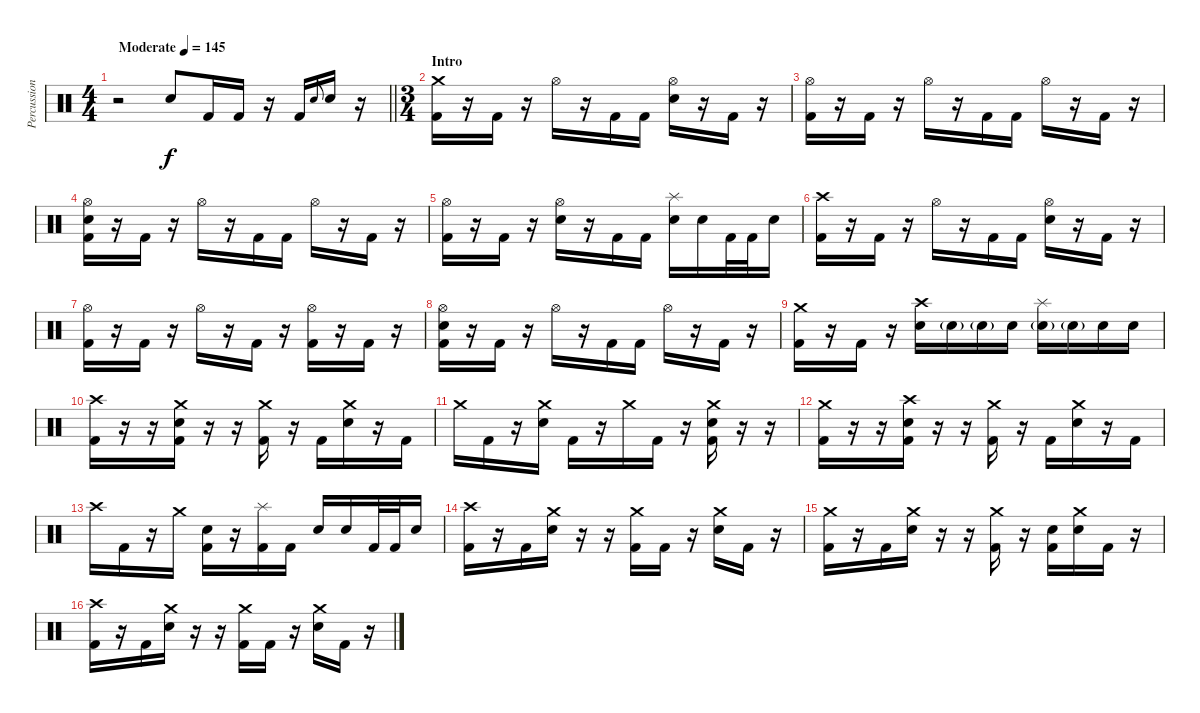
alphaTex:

\track ("Percussion" "Percussion") {instrument percussion}
\staff {score}
\articulation defaults
\ts (4 4)
\tempo (145 "Moderate")
\clef neutral
\barLineRight lightlight
\ks c
r.2{dy f} "Electric Snare (hit)".8 "Kick (hit) 2".16 "Kick (hit) 2".16 r.16 "Kick (hit) 2".16 "Electric Snare (hit)".8{gr onbeat} "Electric Snare (hit)".16 r.16 |
\ts (3 4)
\section ("" "Intro")
("Crash medium (hit)" "Kick (hit) 2").16 r.16 "Kick (hit) 2".16 r.16 "Hi-Hat (open)".16 r.16 "Kick (hit) 2".16 "Kick (hit) 2".16 ("Hi-Hat (open)" "Electric Snare (hit)").16 r.16 "Kick (hit) 2".16 r.16 |
("Hi-Hat (open)" "Kick (hit) 2").16 r.16 "Kick (hit) 2".16 r.16 "Hi-Hat (open)".16 r.16 "Kick (hit) 2".16 "Kick (hit) 2".16 "Hi-Hat (open)".16 r.16 "Kick (hit) 2".16 r.16 |
("Hi-Hat (open)" "Electric Snare (hit)" "Kick (hit) 2").16 r.16 "Kick (hit) 2".16 r.16 "Hi-Hat (open)".16 r.16 "Kick (hit) 2".16 "Kick (hit) 2".16 "Hi-Hat (open)".16 r.16 "Kick (hit) 2".16 r.16 |
("Hi-Hat (open)" "Kick (hit) 2").16 r.16 "Kick (hit) 2".16 r.16 ("Hi-Hat (open)" "Electric Snare (hit)").16 r.16 "Kick (hit) 2".16 "Kick (hit) 2".16 ("Splash (hit)" "Electric Snare (hit)").16 "Electric Snare (hit)".16 "Kick (hit) 2".32 "Kick (hit) 2".32 "Electric Snare (hit)".16 |
("Crash high (hit)" "Kick (hit) 2").16 r.16 "Kick (hit) 2".16 r.16 "Hi-Hat (open)".16 r.16 "Kick (hit) 2".16 "Kick (hit) 2".16 ("Hi-Hat (open)" "Electric Snare (hit)").16 r.16 "Kick (hit) 2".16 r.16 |
("Hi-Hat (open)" "Kick (hit) 2").16 r.16 "Kick (hit) 2".16 r.16 "Hi-Hat (open)".16 r.16 "Kick (hit) 2".16 r.16 ("Hi-Hat (open)" "Kick (hit) 2").16 r.16 "Kick (hit) 2".16 r.16 |
("Hi-Hat (open)" "Electric Snare (hit)" "Kick (hit) 2").16 r.16 "Kick (hit) 2".16 r.16 "Hi-Hat (open)".16 r.16 "Kick (hit) 2".16 "Kick (hit) 2".16 "Hi-Hat (open)".16 r.16 "Kick (hit) 2".16 r.16 |
("Crash medium (hit)" "Kick (hit) 2").16 r.16 "Kick (hit) 2".16 r.16 ("Crash high (hit)" "Electric Snare (hit)").16 "Electric Snare (hit)"{g}.16 "Electric Snare (hit)"{g}.16 "Electric Snare (hit)".16 ("Splash (hit)" "Electric Snare (hit)"{g}).16 "Electric Snare (hit)"{g}.16 "Electric Snare (hit)".16 "Electric Snare (hit)".16 |
("Crash high (hit)" "Kick (hit) 2").16 r.16 r.16 ("Crash medium (hit)" "Electric Snare (hit)" "Kick (hit) 2").16 r.16 r.16 ("Crash medium (hit)" "Kick (hit) 2").16 r.16 "Kick (hit) 2".16 ("Crash medium (hit)" "Electric Snare (hit)").16 r.16 "Kick (hit) 2".16 |
"Crash medium (hit)".16 "Kick (hit) 2".16 r.16 ("Crash medium (hit)" "Electric Snare (hit)").16 "Kick (hit) 2".16 r.16 "Crash medium (hit)".16 "Kick (hit) 2".16 r.16 ("Crash medium (hit)" "Electric Snare (hit)" "Kick (hit) 2").16 r.16 r.16 |
("Crash medium (hit)" "Kick (hit) 2").16 r.16 r.16 ("Crash high (hit)" "Electric Snare (hit)" "Kick (hit) 2").16 r.16 r.16 ("Crash medium (hit)" "Kick (hit) 2").16 r.16 "Kick (hit) 2".16 ("Crash medium (hit)" "Electric Snare (hit)").16 r.16 "Kick (hit) 2".16 |
"Crash high (hit)".16 "Kick (hit) 2".16 r.16 "Crash medium (hit)".16 ("Electric Snare (hit)" "Kick (hit) 2").16 r.16 ("Splash (hit)" "Kick (hit) 2").16 "Kick (hit) 2".16 "Electric Snare (hit)".16 "Electric Snare (hit)".16 "Kick (hit) 2".32 "Kick (hit) 2".32 "Electric Snare (hit)".16 |
("Crash high (hit)" "Kick (hit) 2").16 r.16 "Kick (hit) 2".16 ("Crash medium (hit)" "Electric Snare (hit)").16 r.16 r.16 ("Crash medium (hit)" "Kick (hit) 2").16 "Kick (hit) 2".16 r.16 ("Crash medium (hit)" "Electric Snare (hit)").16 "Kick (hit) 2".16 r.16 |
("Crash medium (hit)" "Kick (hit) 2").16 r.16 "Kick (hit) 2".16 ("Crash medium (hit)" "Electric Snare (hit)").16 r.16 r.16 ("Crash medium (hit)" "Kick (hit) 2").16 r.16 ("Electric Snare (hit)" "Kick (hit) 2").16 ("Crash medium (hit)" "Electric Snare (hit)").16 "Kick (hit) 2".16 r.16 |
("Crash high (hit)" "Kick (hit) 2").16 r.16 "Kick (hit) 2".16 ("Crash medium (hit)" "Electric Snare (hit)").16 r.16 r.16 ("Crash medium (hit)" "Kick (hit) 2").16 "Kick (hit) 2".16 r.16 ("Crash medium (hit)" "Electric Snare (hit)").16 "Kick (hit) 2".16 r.16
